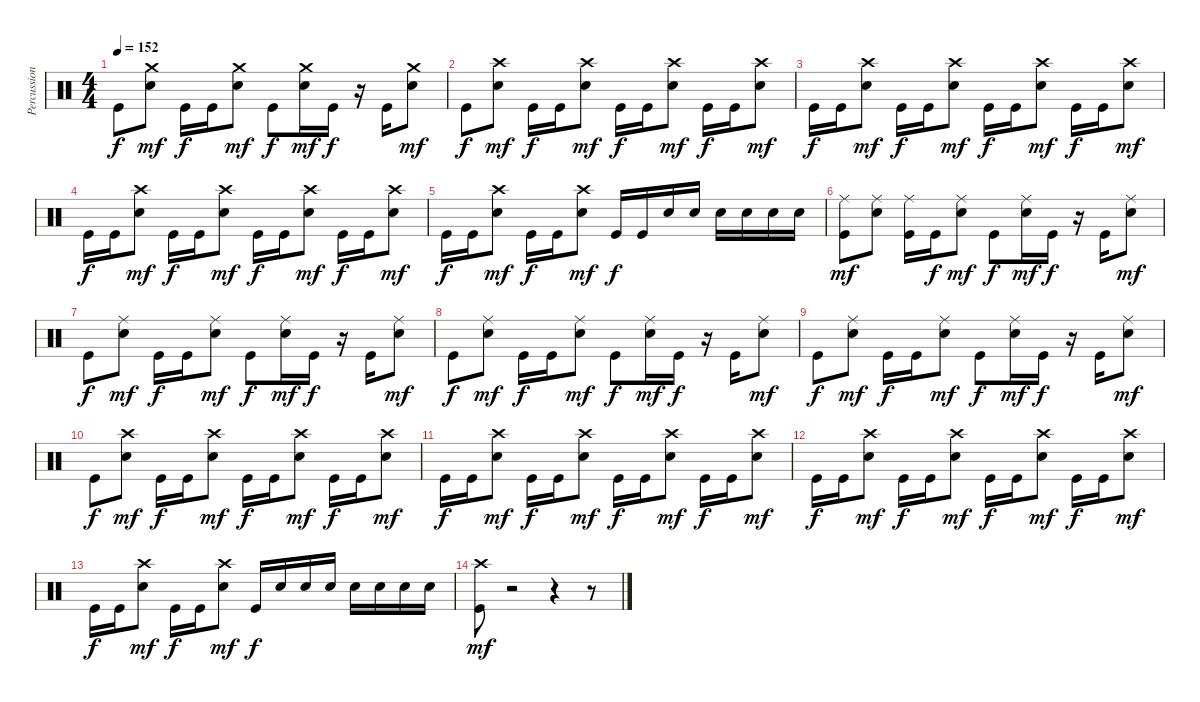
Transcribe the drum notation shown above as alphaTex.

\track ("Percussion" "Percussion") {instrument percussion}
\staff {score}
\articulation defaults
\ts (4 4)
\tempo 152
\clef neutral
\ks c "Kick (hit)".8{dy f}
("Crash medium (hit)" "Electric Snare (hit)").8{dy mf} "Kick (hit)".16{dy f} "Kick (hit)".16 ("Crash medium (hit)" "Electric Snare (hit)").8{dy mf} "Kick (hit)".8{dy f} ("Crash medium (hit)" "Electric Snare (hit)").16{dy mf} "Kick (hit)".16{dy f} r.16 "Kick (hit)".16 ("Crash medium (hit)" "Electric Snare (hit)").8{dy mf} |
"Kick (hit)".8{dy f} ("Crash high (hit)" "Electric Snare (hit)").8{dy mf} "Kick (hit)".16{dy f} "Kick (hit)".16 ("Crash high (hit)" "Electric Snare (hit)").8{dy mf} "Kick (hit)".16{dy f} "Kick (hit)".16 ("Crash high (hit)" "Electric Snare (hit)").8{dy mf} "Kick (hit)".16{dy f} "Kick (hit)".16 ("Crash high (hit)" "Electric Snare (hit)").8{dy mf} |
"Kick (hit)".16{dy f} "Kick (hit)".16 ("Crash high (hit)" "Electric Snare (hit)").8{dy mf} "Kick (hit)".16{dy f} "Kick (hit)".16 ("Crash high (hit)" "Electric Snare (hit)").8{dy mf} "Kick (hit)".16{dy f} "Kick (hit)".16 ("Crash high (hit)" "Electric Snare (hit)").8{dy mf} "Kick (hit)".16{dy f} "Kick (hit)".16 ("Crash high (hit)" "Electric Snare (hit)").8{dy mf} |
"Kick (hit)".16{dy f} "Kick (hit)".16 ("Crash high (hit)" "Electric Snare (hit)").8{dy mf} "Kick (hit)".16{dy f} "Kick (hit)".16 ("Crash high (hit)" "Electric Snare (hit)").8{dy mf} "Kick (hit)".16{dy f} "Kick (hit)".16 ("Crash high (hit)" "Electric Snare (hit)").8{dy mf} "Kick (hit)".16{dy f} "Kick (hit)".16 ("Crash high (hit)" "Electric Snare (hit)").8{dy mf} |
"Kick (hit)".16{dy f} "Kick (hit)".16 ("Crash high (hit)" "Electric Snare (hit)").8{dy mf} "Kick (hit)".16{dy f} "Kick (hit)".16 ("Crash high (hit)" "Electric Snare (hit)").8{dy mf} "Kick (hit)".16{dy f} "Kick (hit)".16 "Electric Snare (hit)".16 "Electric Snare (hit)".16 "Electric Snare (hit)".16 "Electric Snare (hit)".16 "Electric Snare (hit)".16 "Electric Snare (hit)".16 |
("Ride (middle)" "Kick (hit)").8{dy mf} ("Ride (middle)" "Electric Snare (hit)").8 ("Ride (middle)" "Kick (hit)").16 "Kick (hit)".16{dy f} ("Ride (middle)" "Electric Snare (hit)").8{dy mf} "Kick (hit)".8{dy f} ("Ride (middle)" "Electric Snare (hit)").16{dy mf} "Kick (hit)".16{dy f} r.16 "Kick (hit)".16 ("Ride (middle)" "Electric Snare (hit)").8{dy mf} |
"Kick (hit)".8{dy f} ("Ride (middle)" "Electric Snare (hit)").8{dy mf} "Kick (hit)".16{dy f} "Kick (hit)".16 ("Ride (middle)" "Electric Snare (hit)").8{dy mf} "Kick (hit)".8{dy f} ("Ride (middle)" "Electric Snare (hit)").16{dy mf} "Kick (hit)".16{dy f} r.16 "Kick (hit)".16 ("Ride (middle)" "Electric Snare (hit)").8{dy mf} |
"Kick (hit)".8{dy f} ("Ride (middle)" "Electric Snare (hit)").8{dy mf} "Kick (hit)".16{dy f} "Kick (hit)".16 ("Ride (middle)" "Electric Snare (hit)").8{dy mf} "Kick (hit)".8{dy f} ("Ride (middle)" "Electric Snare (hit)").16{dy mf} "Kick (hit)".16{dy f} r.16 "Kick (hit)".16 ("Ride (middle)" "Electric Snare (hit)").8{dy mf} |
"Kick (hit)".8{dy f} ("Ride (middle)" "Electric Snare (hit)").8{dy mf} "Kick (hit)".16{dy f} "Kick (hit)".16 ("Ride (middle)" "Electric Snare (hit)").8{dy mf} "Kick (hit)".8{dy f} ("Ride (middle)" "Electric Snare (hit)").16{dy mf} "Kick (hit)".16{dy f} r.16 "Kick (hit)".16 ("Ride (middle)" "Electric Snare (hit)").8{dy mf} |
"Kick (hit)".8{dy f} ("Crash high (hit)" "Electric Snare (hit)").8{dy mf} "Kick (hit)".16{dy f} "Kick (hit)".16 ("Crash high (hit)" "Electric Snare (hit)").8{dy mf} "Kick (hit)".16{dy f} "Kick (hit)".16 ("Crash high (hit)" "Electric Snare (hit)").8{dy mf} "Kick (hit)".16{dy f} "Kick (hit)".16 ("Crash high (hit)" "Electric Snare (hit)").8{dy mf} |
"Kick (hit)".16{dy f} "Kick (hit)".16 ("Crash high (hit)" "Electric Snare (hit)").8{dy mf} "Kick (hit)".16{dy f} "Kick (hit)".16 ("Crash high (hit)" "Electric Snare (hit)").8{dy mf} "Kick (hit)".16{dy f} "Kick (hit)".16 ("Crash high (hit)" "Electric Snare (hit)").8{dy mf} "Kick (hit)".16{dy f} "Kick (hit)".16 ("Crash high (hit)" "Electric Snare (hit)").8{dy mf} |
"Kick (hit)".16{dy f} "Kick (hit)".16 ("Crash high (hit)" "Electric Snare (hit)").8{dy mf} "Kick (hit)".16{dy f} "Kick (hit)".16 ("Crash high (hit)" "Electric Snare (hit)").8{dy mf} "Kick (hit)".16{dy f} "Kick (hit)".16 ("Crash high (hit)" "Electric Snare (hit)").8{dy mf} "Kick (hit)".16{dy f} "Kick (hit)".16 ("Crash high (hit)" "Electric Snare (hit)").8{dy mf} |
"Kick (hit)".16{dy f} "Kick (hit)".16 ("Crash high (hit)" "Electric Snare (hit)").8{dy mf} "Kick (hit)".16{dy f} "Kick (hit)".16 ("Crash high (hit)" "Electric Snare (hit)").8{dy mf} "Kick (hit)".16{dy f} "Electric Snare (hit)".16 "Electric Snare (hit)".16 "Electric Snare (hit)".16 "Electric Snare (hit)".16 "Electric Snare (hit)".16 "Electric Snare (hit)".16 "Electric Snare (hit)".16 |
("Crash high (hit)" "Kick (hit)").8{dy mf} r.2 r.4 r.8
